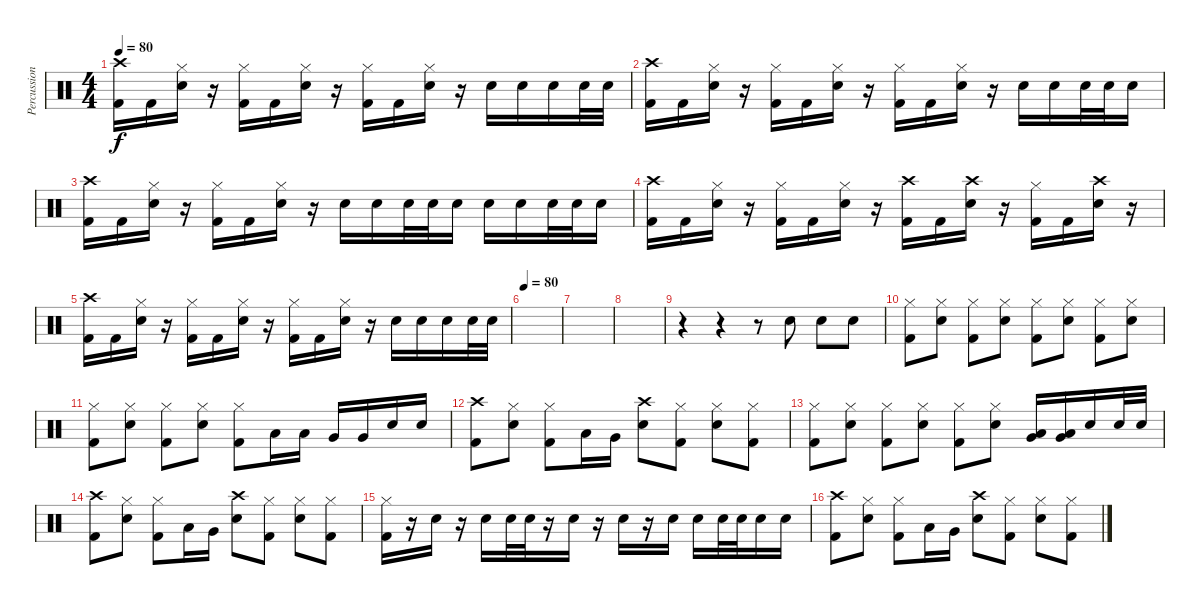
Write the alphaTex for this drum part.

\track ("Percussion" "Percussion") {instrument percussion}
\staff {score}
\articulation defaults
\ts (4 4)
\tempo 80
\clef neutral
\ks c
("Crash high (hit)" "Kick (hit) 2").16{dy f} "Kick (hit) 2".16 ("Hi-Hat (closed)" "Electric Snare (hit)").16 r.16 ("Hi-Hat (closed)" "Kick (hit) 2").16 "Kick (hit) 2".16 ("Hi-Hat (closed)" "Electric Snare (hit)").16 r.16 ("Hi-Hat (closed)" "Kick (hit) 2").16 "Kick (hit) 2".16 ("Hi-Hat (closed)" "Electric Snare (hit)").16 r.16 "Electric Snare (hit)".16 "Electric Snare (hit)".16 "Electric Snare (hit)".16 "Electric Snare (hit)".32 "Electric Snare (hit)".32 |
("Crash high (hit)" "Kick (hit) 2").16 "Kick (hit) 2".16 ("Hi-Hat (closed)" "Electric Snare (hit)").16 r.16 ("Hi-Hat (closed)" "Kick (hit) 2").16 "Kick (hit) 2".16 ("Hi-Hat (closed)" "Electric Snare (hit)").16 r.16 ("Hi-Hat (closed)" "Kick (hit) 2").16 "Kick (hit) 2".16 ("Hi-Hat (closed)" "Electric Snare (hit)").16 r.16 "Electric Snare (hit)".16 "Electric Snare (hit)".16 "Electric Snare (hit)".32 "Electric Snare (hit)".32 "Electric Snare (hit)".16 |
("Crash high (hit)" "Kick (hit) 2").16 "Kick (hit) 2".16 ("Hi-Hat (closed)" "Electric Snare (hit)").16 r.16 ("Hi-Hat (closed)" "Kick (hit) 2").16 "Kick (hit) 2".16 ("Hi-Hat (closed)" "Electric Snare (hit)").16 r.16 "Electric Snare (hit)".16 "Electric Snare (hit)".16 "Electric Snare (hit)".32 "Electric Snare (hit)".32 "Electric Snare (hit)".16 "Electric Snare (hit)".16 "Electric Snare (hit)".16 "Electric Snare (hit)".32 "Electric Snare (hit)".32 "Electric Snare (hit)".16 |
("Crash high (hit)" "Kick (hit) 2").16 "Kick (hit) 2".16 ("Hi-Hat (closed)" "Electric Snare (hit)").16 r.16 ("Hi-Hat (closed)" "Kick (hit) 2").16 "Kick (hit) 2".16 ("Hi-Hat (closed)" "Electric Snare (hit)").16 r.16 ("Crash high (hit)" "Kick (hit) 2").16 "Kick (hit) 2".16 ("Crash high (hit)" "Electric Snare (hit)").16 r.16 ("Hi-Hat (closed)" "Kick (hit) 2").16 "Kick (hit) 2".16 ("Crash high (hit)" "Electric Snare (hit)").16 r.16 |
("Crash high (hit)" "Kick (hit) 2").16 "Kick (hit) 2".16 ("Hi-Hat (closed)" "Electric Snare (hit)").16 r.16 ("Hi-Hat (closed)" "Kick (hit) 2").16 "Kick (hit) 2".16 ("Hi-Hat (closed)" "Electric Snare (hit)").16 r.16 ("Hi-Hat (closed)" "Kick (hit) 2").16 "Kick (hit) 2".16 ("Hi-Hat (closed)" "Electric Snare (hit)").16 r.16 "Electric Snare (hit)".16 "Electric Snare (hit)".16 "Electric Snare (hit)".16 "Electric Snare (hit)".32 "Electric Snare (hit)".32 |
\tempo 80
|
|
|
r.4 r.4 r.8 "Electric Snare (hit)".8 "Electric Snare (hit)".8 "Electric Snare (hit)".8 |
("Hi-Hat (closed)" "Kick (hit) 2").8 ("Hi-Hat (closed)" "Electric Snare (hit)").8 ("Hi-Hat (closed)" "Kick (hit) 2").8 ("Hi-Hat (closed)" "Electric Snare (hit)").8 ("Hi-Hat (closed)" "Kick (hit) 2").8 ("Hi-Hat (closed)" "Electric Snare (hit)").8 ("Hi-Hat (closed)" "Kick (hit) 2").8 ("Hi-Hat (closed)" "Electric Snare (hit)").8 |
("Hi-Hat (closed)" "Kick (hit) 2").8 ("Hi-Hat (closed)" "Electric Snare (hit)").8 ("Hi-Hat (closed)" "Kick (hit) 2").8 ("Hi-Hat (closed)" "Electric Snare (hit)").8 ("Hi-Hat (closed)" "Kick (hit) 2").8 "Low Tom (hit)".16 "Low Tom (hit)".16 "Very Low Tom (hit)".16 "Very Low Tom (hit)".16 "Electric Snare (hit)".16 "Electric Snare (hit)".16 |
("Crash high (hit)" "Kick (hit) 2").8 ("Hi-Hat (closed)" "Electric Snare (hit)").8 ("Hi-Hat (closed)" "Kick (hit) 2").8 "Low Tom (hit)".16 "Very Low Tom (hit)".16 ("Crash high (hit)" "Electric Snare (hit)").8 ("Hi-Hat (closed)" "Kick (hit) 2").8 ("Hi-Hat (closed)" "Electric Snare (hit)").8 ("Hi-Hat (closed)" "Kick (hit) 2").8 |
("Hi-Hat (closed)" "Kick (hit) 2").8 ("Hi-Hat (closed)" "Electric Snare (hit)").8 ("Hi-Hat (closed)" "Kick (hit) 2").8 ("Hi-Hat (closed)" "Electric Snare (hit)").8 ("Hi-Hat (closed)" "Kick (hit) 2").8 ("Hi-Hat (closed)" "Electric Snare (hit)").8 ("Low Tom (hit)" "Very Low Tom (hit)").16 ("Low Tom (hit)" "Very Low Tom (hit)").16 "Electric Snare (hit)".16 "Electric Snare (hit)".32 "Electric Snare (hit)".32 |
("Crash high (hit)" "Kick (hit) 2").8 ("Hi-Hat (closed)" "Electric Snare (hit)").8 ("Hi-Hat (closed)" "Kick (hit) 2").8 "Low Tom (hit)".16 "Very Low Tom (hit)".16 ("Crash high (hit)" "Electric Snare (hit)").8 ("Hi-Hat (closed)" "Kick (hit) 2").8 ("Hi-Hat (closed)" "Electric Snare (hit)").8 ("Hi-Hat (closed)" "Kick (hit) 2").8 |
("Hi-Hat (closed)" "Kick (hit) 2").16 r.16 "Electric Snare (hit)".16 r.16 "Electric Snare (hit)".16 "Electric Snare (hit)".32 "Electric Snare (hit)".32 r.16 "Electric Snare (hit)".16 r.16 "Electric Snare (hit)".16 r.16 "Electric Snare (hit)".16 "Electric Snare (hit)".16 "Electric Snare (hit)".32 "Electric Snare (hit)".32 "Electric Snare (hit)".16 "Electric Snare (hit)".16 |
("Crash high (hit)" "Kick (hit) 2").8 ("Hi-Hat (closed)" "Electric Snare (hit)").8 ("Hi-Hat (closed)" "Kick (hit) 2").8 "Low Tom (hit)".16 "Very Low Tom (hit)".16 ("Crash high (hit)" "Electric Snare (hit)").8 ("Hi-Hat (closed)" "Kick (hit) 2").8 ("Hi-Hat (closed)" "Electric Snare (hit)").8 ("Hi-Hat (closed)" "Kick (hit) 2").8
